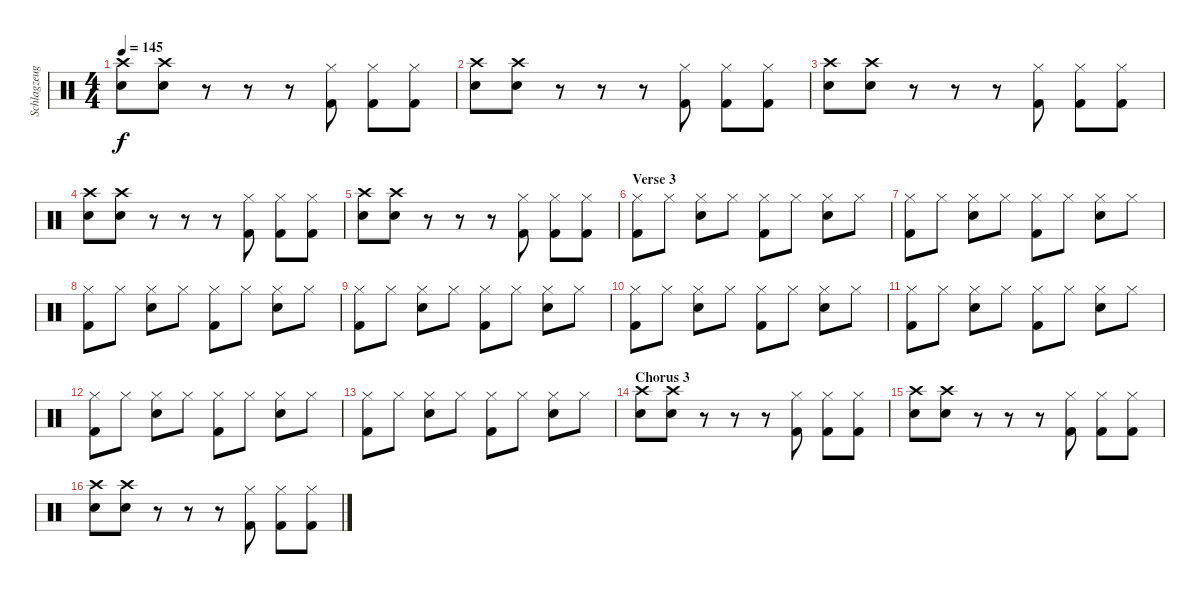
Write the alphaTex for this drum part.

\track ("Schlagzeug" "Schlagzeug") {instrument percussion}
\staff {score}
\articulation defaults
\ts (4 4)
\tempo 145
\clef neutral
\ks c
("Snare (hit) 2" "Crash high (hit)").8{dy f} ("Snare (hit) 2" "Crash high (hit)").8 r.8 r.8 r.8 ("Kick (hit) 2" "Hi-Hat (closed)").8 ("Kick (hit) 2" "Hi-Hat (closed)").8 ("Kick (hit) 2" "Hi-Hat (closed)").8 |
("Snare (hit) 2" "Crash high (hit)").8 ("Snare (hit) 2" "Crash high (hit)").8 r.8 r.8 r.8 ("Kick (hit) 2" "Hi-Hat (closed)").8 ("Kick (hit) 2" "Hi-Hat (closed)").8 ("Kick (hit) 2" "Hi-Hat (closed)").8 |
("Snare (hit) 2" "Crash high (hit)").8 ("Snare (hit) 2" "Crash high (hit)").8 r.8 r.8 r.8 ("Kick (hit) 2" "Hi-Hat (closed)").8 ("Kick (hit) 2" "Hi-Hat (closed)").8 ("Kick (hit) 2" "Hi-Hat (closed)").8 |
("Snare (hit) 2" "Crash high (hit)").8 ("Snare (hit) 2" "Crash high (hit)").8 r.8 r.8 r.8 ("Kick (hit) 2" "Hi-Hat (closed)").8 ("Kick (hit) 2" "Hi-Hat (closed)").8 ("Kick (hit) 2" "Hi-Hat (closed)").8 |
("Snare (hit) 2" "Crash high (hit)").8 ("Snare (hit) 2" "Crash high (hit)").8 r.8 r.8 r.8 ("Kick (hit) 2" "Hi-Hat (closed)").8 ("Kick (hit) 2" "Hi-Hat (closed)").8 ("Kick (hit) 2" "Hi-Hat (closed)").8 |
\section ("" "Verse 3")
("Kick (hit) 2" "Hi-Hat (closed)").8 "Hi-Hat (closed)".8 ("Snare (hit) 2" "Hi-Hat (closed)").8 "Hi-Hat (closed)".8 ("Kick (hit) 2" "Hi-Hat (closed)").8 "Hi-Hat (closed)".8 ("Snare (hit) 2" "Hi-Hat (closed)").8 "Hi-Hat (closed)".8 |
("Kick (hit) 2" "Hi-Hat (closed)").8 "Hi-Hat (closed)".8 ("Snare (hit) 2" "Hi-Hat (closed)").8 "Hi-Hat (closed)".8 ("Kick (hit) 2" "Hi-Hat (closed)").8 "Hi-Hat (closed)".8 ("Snare (hit) 2" "Hi-Hat (closed)").8 "Hi-Hat (closed)".8 |
("Kick (hit) 2" "Hi-Hat (closed)").8 "Hi-Hat (closed)".8 ("Snare (hit) 2" "Hi-Hat (closed)").8 "Hi-Hat (closed)".8 ("Kick (hit) 2" "Hi-Hat (closed)").8 "Hi-Hat (closed)".8 ("Snare (hit) 2" "Hi-Hat (closed)").8 "Hi-Hat (closed)".8 |
("Kick (hit) 2" "Hi-Hat (closed)").8 "Hi-Hat (closed)".8 ("Snare (hit) 2" "Hi-Hat (closed)").8 "Hi-Hat (closed)".8 ("Kick (hit) 2" "Hi-Hat (closed)").8 "Hi-Hat (closed)".8 ("Snare (hit) 2" "Hi-Hat (closed)").8 "Hi-Hat (closed)".8 |
("Kick (hit) 2" "Hi-Hat (closed)").8 "Hi-Hat (closed)".8 ("Snare (hit) 2" "Hi-Hat (closed)").8 "Hi-Hat (closed)".8 ("Kick (hit) 2" "Hi-Hat (closed)").8 "Hi-Hat (closed)".8 ("Snare (hit) 2" "Hi-Hat (closed)").8 "Hi-Hat (closed)".8 |
("Kick (hit) 2" "Hi-Hat (closed)").8 "Hi-Hat (closed)".8 ("Snare (hit) 2" "Hi-Hat (closed)").8 "Hi-Hat (closed)".8 ("Kick (hit) 2" "Hi-Hat (closed)").8 "Hi-Hat (closed)".8 ("Snare (hit) 2" "Hi-Hat (closed)").8 "Hi-Hat (closed)".8 |
("Kick (hit) 2" "Hi-Hat (closed)").8 "Hi-Hat (closed)".8 ("Snare (hit) 2" "Hi-Hat (closed)").8 "Hi-Hat (closed)".8 ("Kick (hit) 2" "Hi-Hat (closed)").8 "Hi-Hat (closed)".8 ("Snare (hit) 2" "Hi-Hat (closed)").8 "Hi-Hat (closed)".8 |
("Kick (hit) 2" "Hi-Hat (closed)").8 "Hi-Hat (closed)".8 ("Snare (hit) 2" "Hi-Hat (closed)").8 "Hi-Hat (closed)".8 ("Kick (hit) 2" "Hi-Hat (closed)").8 "Hi-Hat (closed)".8 ("Snare (hit) 2" "Hi-Hat (closed)").8 "Hi-Hat (closed)".8 |
\section ("" "Chorus 3")
("Snare (hit) 2" "Crash high (hit)").8 ("Snare (hit) 2" "Crash high (hit)").8 r.8 r.8 r.8 ("Kick (hit) 2" "Hi-Hat (closed)").8 ("Kick (hit) 2" "Hi-Hat (closed)").8 ("Kick (hit) 2" "Hi-Hat (closed)").8 |
("Snare (hit) 2" "Crash high (hit)").8 ("Snare (hit) 2" "Crash high (hit)").8 r.8 r.8 r.8 ("Kick (hit) 2" "Hi-Hat (closed)").8 ("Kick (hit) 2" "Hi-Hat (closed)").8 ("Kick (hit) 2" "Hi-Hat (closed)").8 |
("Snare (hit) 2" "Crash high (hit)").8 ("Snare (hit) 2" "Crash high (hit)").8 r.8 r.8 r.8 ("Kick (hit) 2" "Hi-Hat (closed)").8 ("Kick (hit) 2" "Hi-Hat (closed)").8 ("Kick (hit) 2" "Hi-Hat (closed)").8
